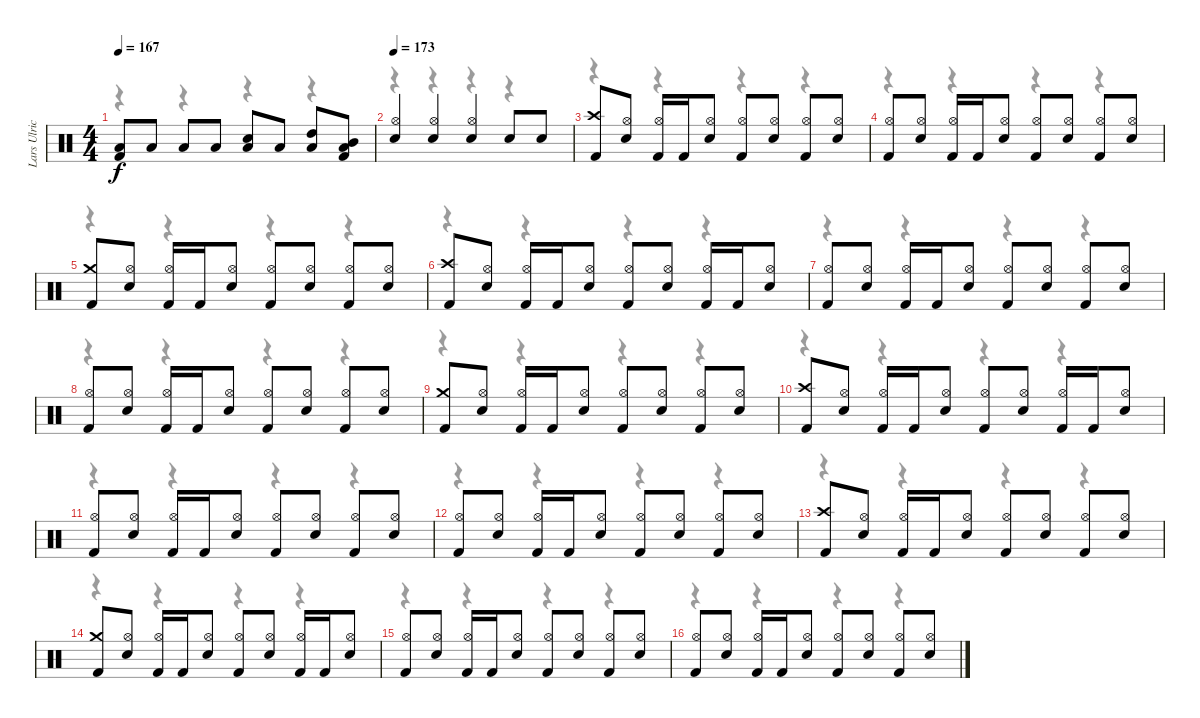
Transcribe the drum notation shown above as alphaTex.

\track ("Lars Ulrich" "Lars Ulric") {instrument percussion}
\staff {score}
\articulation defaults
\voice
\ts (4 4)
\tempo 167
\clef neutral
\ks c
("Low Tom (hit)" "Kick (hit) 2").8{dy f} "Low Tom (hit)".8 "Low Tom (hit)".8 "Low Tom (hit)".8 ("Low Tom (hit)" "Snare (hit) 2").8 "Low Tom (hit)".8 ("High Tom (hit)" "Low Tom (hit)").8 ("Mid Tom (hit)" "Low Tom (hit)" "Kick (hit) 2").8 |
\tempo 173
("Hi-Hat (open)" "Snare (hit) 2").4 ("Hi-Hat (open)" "Snare (hit) 2").4 ("Hi-Hat (open)" "Snare (hit) 2").4 "Snare (hit) 2".8 "Snare (hit) 2".8 |
("Crash high (hit)" "Kick (hit) 2").8 ("Hi-Hat (open)" "Snare (hit) 2").8 ("Hi-Hat (open)" "Kick (hit) 2").16 "Kick (hit) 2".16 ("Hi-Hat (open)" "Snare (hit) 2").8 ("Hi-Hat (open)" "Kick (hit) 2").8 ("Hi-Hat (open)" "Snare (hit) 2").8 ("Hi-Hat (open)" "Kick (hit) 2").8 ("Hi-Hat (open)" "Snare (hit) 2").8 |
("Hi-Hat (open)" "Kick (hit) 2").8 ("Hi-Hat (open)" "Snare (hit) 2").8 ("Hi-Hat (open)" "Kick (hit) 2").16 "Kick (hit) 2".16 ("Hi-Hat (open)" "Snare (hit) 2").8 ("Hi-Hat (open)" "Kick (hit) 2").8 ("Hi-Hat (open)" "Snare (hit) 2").8 ("Hi-Hat (open)" "Kick (hit) 2").8 ("Hi-Hat (open)" "Snare (hit) 2").8 |
("Crash medium (hit)" "Kick (hit) 2").8 ("Hi-Hat (open)" "Snare (hit) 2").8 ("Hi-Hat (open)" "Kick (hit) 2").16 "Kick (hit) 2".16 ("Hi-Hat (open)" "Snare (hit) 2").8 ("Hi-Hat (open)" "Kick (hit) 2").8 ("Hi-Hat (open)" "Snare (hit) 2").8 ("Hi-Hat (open)" "Kick (hit) 2").8 ("Hi-Hat (open)" "Snare (hit) 2").8 |
("Crash high (hit)" "Kick (hit) 2").8 ("Hi-Hat (open)" "Snare (hit) 2").8 ("Hi-Hat (open)" "Kick (hit) 2").16 "Kick (hit) 2".16 ("Hi-Hat (open)" "Snare (hit) 2").8 ("Hi-Hat (open)" "Kick (hit) 2").8 ("Hi-Hat (open)" "Snare (hit) 2").8 ("Hi-Hat (open)" "Kick (hit) 2").16 "Kick (hit) 2".16 ("Hi-Hat (open)" "Snare (hit) 2").8 |
("Hi-Hat (open)" "Kick (hit) 2").8 ("Hi-Hat (open)" "Snare (hit) 2").8 ("Hi-Hat (open)" "Kick (hit) 2").16 "Kick (hit) 2".16 ("Hi-Hat (open)" "Snare (hit) 2").8 ("Hi-Hat (open)" "Kick (hit) 2").8 ("Hi-Hat (open)" "Snare (hit) 2").8 ("Hi-Hat (open)" "Kick (hit) 2").8 ("Hi-Hat (open)" "Snare (hit) 2").8 |
("Hi-Hat (open)" "Kick (hit) 2").8 ("Hi-Hat (open)" "Snare (hit) 2").8 ("Hi-Hat (open)" "Kick (hit) 2").16 "Kick (hit) 2".16 ("Hi-Hat (open)" "Snare (hit) 2").8 ("Hi-Hat (open)" "Kick (hit) 2").8 ("Hi-Hat (open)" "Snare (hit) 2").8 ("Hi-Hat (open)" "Kick (hit) 2").8 ("Hi-Hat (open)" "Snare (hit) 2").8 |
("Crash medium (hit)" "Kick (hit) 2").8 ("Hi-Hat (open)" "Snare (hit) 2").8 ("Hi-Hat (open)" "Kick (hit) 2").16 "Kick (hit) 2".16 ("Hi-Hat (open)" "Snare (hit) 2").8 ("Hi-Hat (open)" "Kick (hit) 2").8 ("Hi-Hat (open)" "Snare (hit) 2").8 ("Hi-Hat (open)" "Kick (hit) 2").8 ("Hi-Hat (open)" "Snare (hit) 2").8 |
("Crash high (hit)" "Kick (hit) 2").8 ("Hi-Hat (open)" "Snare (hit) 2").8 ("Hi-Hat (open)" "Kick (hit) 2").16 "Kick (hit) 2".16 ("Hi-Hat (open)" "Snare (hit) 2").8 ("Hi-Hat (open)" "Kick (hit) 2").8 ("Hi-Hat (open)" "Snare (hit) 2").8 ("Hi-Hat (open)" "Kick (hit) 2").16 "Kick (hit) 2".16 ("Hi-Hat (open)" "Snare (hit) 2").8 |
("Hi-Hat (open)" "Kick (hit) 2").8 ("Hi-Hat (open)" "Snare (hit) 2").8 ("Hi-Hat (open)" "Kick (hit) 2").16 "Kick (hit) 2".16 ("Hi-Hat (open)" "Snare (hit) 2").8 ("Hi-Hat (open)" "Kick (hit) 2").8 ("Hi-Hat (open)" "Snare (hit) 2").8 ("Hi-Hat (open)" "Kick (hit) 2").8 ("Hi-Hat (open)" "Snare (hit) 2").8 |
("Hi-Hat (open)" "Kick (hit) 2").8 ("Hi-Hat (open)" "Snare (hit) 2").8 ("Hi-Hat (open)" "Kick (hit) 2").16 "Kick (hit) 2".16 ("Hi-Hat (open)" "Snare (hit) 2").8 ("Hi-Hat (open)" "Kick (hit) 2").8 ("Hi-Hat (open)" "Snare (hit) 2").8 ("Hi-Hat (open)" "Kick (hit) 2").8 ("Hi-Hat (open)" "Snare (hit) 2").8 |
("Crash high (hit)" "Kick (hit) 2").8 ("Hi-Hat (open)" "Snare (hit) 2").8 ("Hi-Hat (open)" "Kick (hit) 2").16 "Kick (hit) 2".16 ("Hi-Hat (open)" "Snare (hit) 2").8 ("Hi-Hat (open)" "Kick (hit) 2").8 ("Hi-Hat (open)" "Snare (hit) 2").8 ("Hi-Hat (open)" "Kick (hit) 2").8 ("Hi-Hat (open)" "Snare (hit) 2").8 |
("Crash medium (hit)" "Kick (hit) 2").8 ("Hi-Hat (open)" "Snare (hit) 2").8 ("Hi-Hat (open)" "Kick (hit) 2").16 "Kick (hit) 2".16 ("Hi-Hat (open)" "Snare (hit) 2").8 ("Hi-Hat (open)" "Kick (hit) 2").8 ("Hi-Hat (open)" "Snare (hit) 2").8 ("Hi-Hat (open)" "Kick (hit) 2").16 "Kick (hit) 2".16 ("Hi-Hat (open)" "Snare (hit) 2").8 |
("Hi-Hat (open)" "Kick (hit) 2").8 ("Hi-Hat (open)" "Snare (hit) 2").8 ("Hi-Hat (open)" "Kick (hit) 2").16 "Kick (hit) 2".16 ("Hi-Hat (open)" "Snare (hit) 2").8 ("Hi-Hat (open)" "Kick (hit) 2").8 ("Hi-Hat (open)" "Snare (hit) 2").8 ("Hi-Hat (open)" "Kick (hit) 2").8 ("Hi-Hat (open)" "Snare (hit) 2").8 |
("Hi-Hat (open)" "Kick (hit) 2").8 ("Hi-Hat (open)" "Snare (hit) 2").8 ("Hi-Hat (open)" "Kick (hit) 2").16 "Kick (hit) 2".16 ("Hi-Hat (open)" "Snare (hit) 2").8 ("Hi-Hat (open)" "Kick (hit) 2").8 ("Hi-Hat (open)" "Snare (hit) 2").8 ("Hi-Hat (open)" "Kick (hit) 2").8 ("Hi-Hat (open)" "Snare (hit) 2").8
\voice
\clef neutral
\ottava regular
\simile none
\ks c
r.4{dy f} r.4 r.4 r.4 |
r.4 r.4 r.4 r.4 |
r.4 r.4 r.4 r.4 |
r.4 r.4 r.4 r.4 |
r.4 r.4 r.4 r.4 |
r.4 r.4 r.4 r.4 |
r.4 r.4 r.4 r.4 |
r.4 r.4 r.4 r.4 |
r.4 r.4 r.4 r.4 |
r.4 r.4 r.4 r.4 |
r.4 r.4 r.4 r.4 |
r.4 r.4 r.4 r.4 |
r.4 r.4 r.4 r.4 |
r.4 r.4 r.4 r.4 |
r.4 r.4 r.4 r.4 |
r.4 r.4 r.4 r.4
